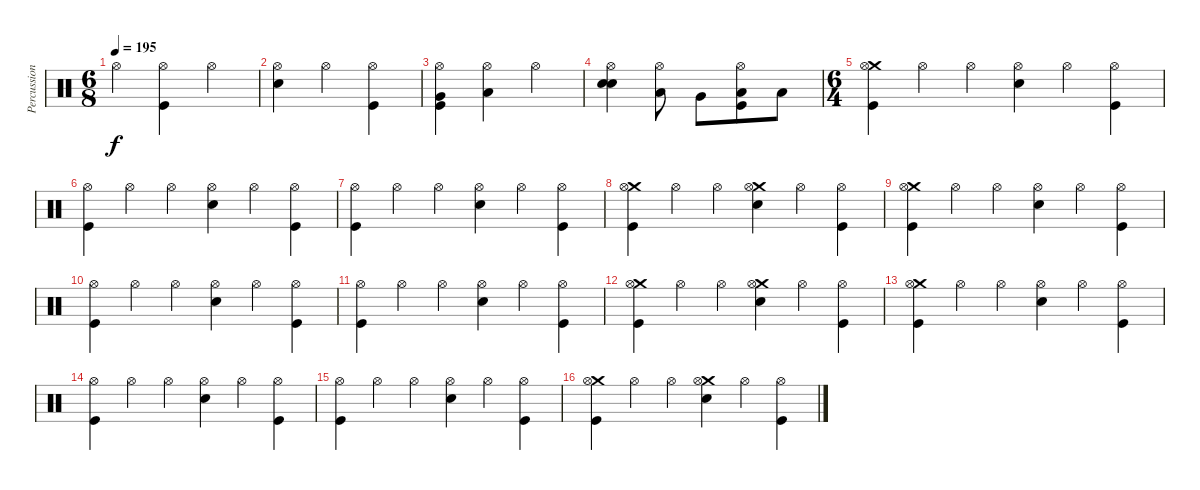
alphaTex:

\track ("Percussion" "Percussion") {instrument percussion}
\staff {score}
\articulation defaults
\ts (6 8)
\tempo 195
\clef neutral
\ks c "Hi-Hat (open)".4{dy f}
("Hi-Hat (open)" "Kick (hit)").4 "Hi-Hat (open)".4 |
("Hi-Hat (open)" "Electric Snare (hit)").4 "Hi-Hat (open)".4 ("Hi-Hat (open)" "Kick (hit)").4 |
("Very Low Tom (hit)" "Hi-Hat (open)" "Kick (hit)").4 ("Low Floor Tom (hit)" "Hi-Hat (open)").4 "Hi-Hat (open)".4 |
("Electric Snare (hit)" "Hi-Hat (open)" "Electric Snare (hit)").4 ("Low Tom (hit)" "Hi-Hat (open)").8 "Very Low Tom (hit)".8 ("Low Floor Tom (hit)" "Hi-Hat (open)" "Kick (hit)").8 "Low Floor Tom (hit)".8 |
\ts (6 4)
("Crash medium (hit)" "Hi-Hat (open)" "Kick (hit)").4 "Hi-Hat (open)".4 "Hi-Hat (open)".4 ("Electric Snare (hit)" "Hi-Hat (open)").4 "Hi-Hat (open)".4 ("Hi-Hat (open)" "Kick (hit)").4 |
("Hi-Hat (open)" "Kick (hit)").4 "Hi-Hat (open)".4 "Hi-Hat (open)".4 ("Electric Snare (hit)" "Hi-Hat (open)").4 "Hi-Hat (open)".4 ("Hi-Hat (open)" "Kick (hit)").4 |
("Hi-Hat (open)" "Kick (hit)").4 "Hi-Hat (open)".4 "Hi-Hat (open)".4 ("Electric Snare (hit)" "Hi-Hat (open)").4 "Hi-Hat (open)".4 ("Hi-Hat (open)" "Kick (hit)").4 |
("Crash medium (hit)" "Hi-Hat (open)" "Kick (hit)").4 "Hi-Hat (open)".4 "Hi-Hat (open)".4 ("Electric Snare (hit)" "Crash medium (hit)" "Hi-Hat (open)").4 "Hi-Hat (open)".4 ("Hi-Hat (open)" "Kick (hit)").4 |
("Crash medium (hit)" "Hi-Hat (open)" "Kick (hit)").4 "Hi-Hat (open)".4 "Hi-Hat (open)".4 ("Electric Snare (hit)" "Hi-Hat (open)").4 "Hi-Hat (open)".4 ("Hi-Hat (open)" "Kick (hit)").4 |
("Hi-Hat (open)" "Kick (hit)").4 "Hi-Hat (open)".4 "Hi-Hat (open)".4 ("Electric Snare (hit)" "Hi-Hat (open)").4 "Hi-Hat (open)".4 ("Hi-Hat (open)" "Kick (hit)").4 |
("Hi-Hat (open)" "Kick (hit)").4 "Hi-Hat (open)".4 "Hi-Hat (open)".4 ("Electric Snare (hit)" "Hi-Hat (open)").4 "Hi-Hat (open)".4 ("Hi-Hat (open)" "Kick (hit)").4 |
("Crash medium (hit)" "Hi-Hat (open)" "Kick (hit)").4 "Hi-Hat (open)".4 "Hi-Hat (open)".4 ("Electric Snare (hit)" "Crash medium (hit)" "Hi-Hat (open)").4 "Hi-Hat (open)".4 ("Hi-Hat (open)" "Kick (hit)").4 |
("Crash medium (hit)" "Hi-Hat (open)" "Kick (hit)").4 "Hi-Hat (open)".4 "Hi-Hat (open)".4 ("Electric Snare (hit)" "Hi-Hat (open)").4 "Hi-Hat (open)".4 ("Hi-Hat (open)" "Kick (hit)").4 |
("Hi-Hat (open)" "Kick (hit)").4 "Hi-Hat (open)".4 "Hi-Hat (open)".4 ("Electric Snare (hit)" "Hi-Hat (open)").4 "Hi-Hat (open)".4 ("Hi-Hat (open)" "Kick (hit)").4 |
("Hi-Hat (open)" "Kick (hit)").4 "Hi-Hat (open)".4 "Hi-Hat (open)".4 ("Electric Snare (hit)" "Hi-Hat (open)").4 "Hi-Hat (open)".4 ("Hi-Hat (open)" "Kick (hit)").4 |
("Crash medium (hit)" "Hi-Hat (open)" "Kick (hit)").4 "Hi-Hat (open)".4 "Hi-Hat (open)".4 ("Electric Snare (hit)" "Crash medium (hit)" "Hi-Hat (open)").4 "Hi-Hat (open)".4 ("Hi-Hat (open)" "Kick (hit)").4
